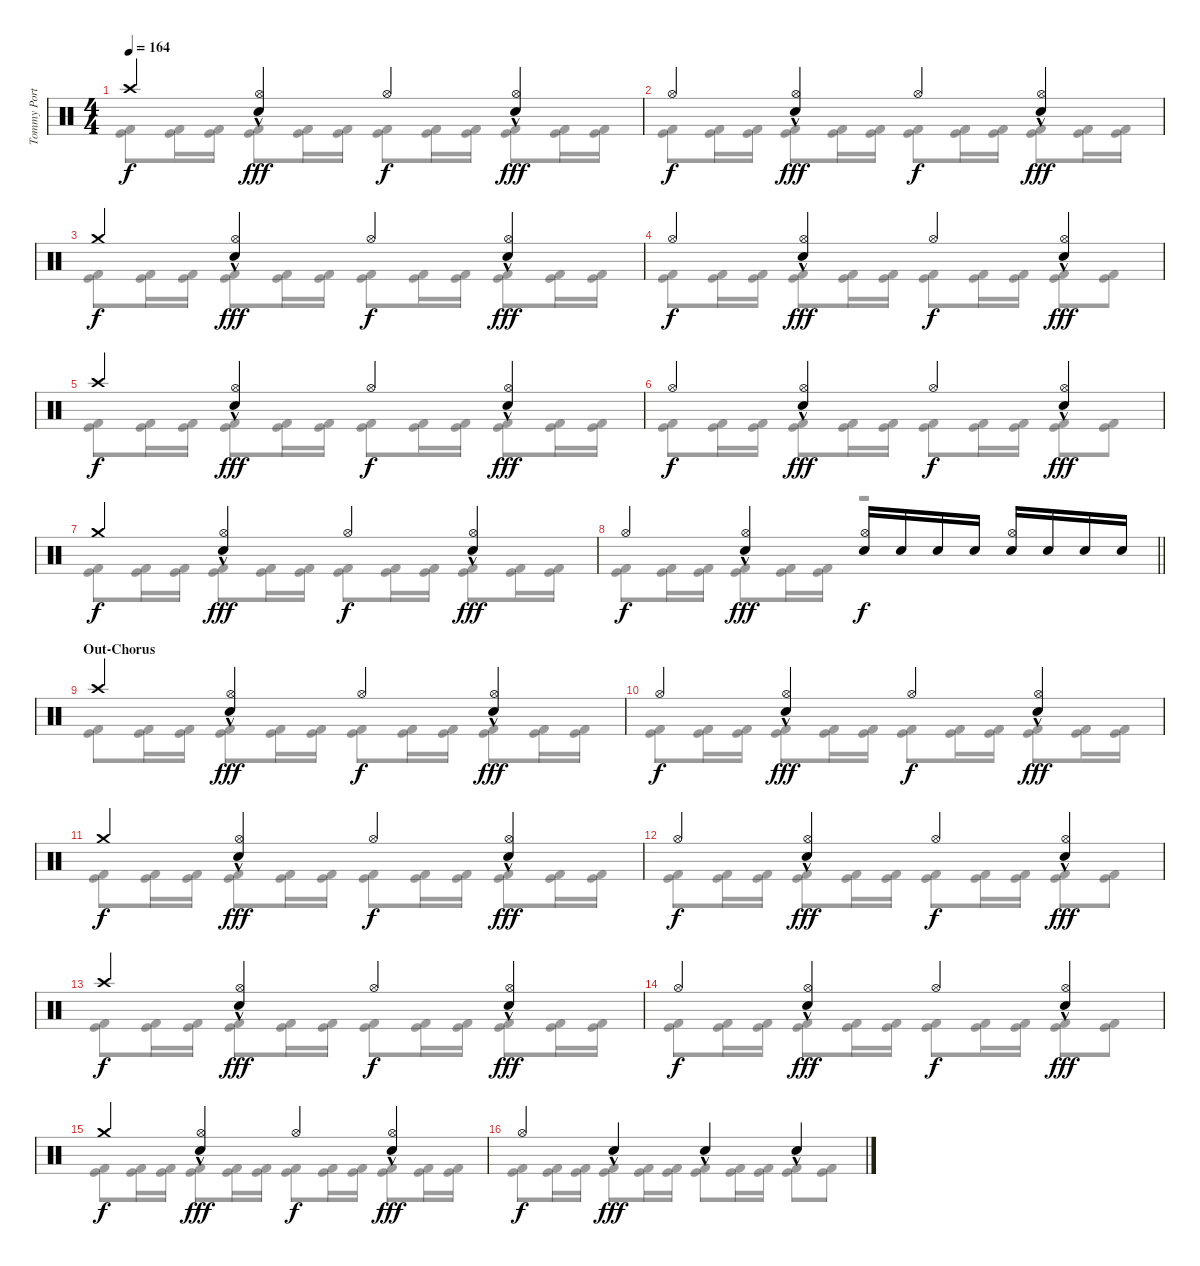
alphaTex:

\track ("Tommy Portimo" "Tommy Port") {instrument percussion}
\staff {score}
\articulation defaults
\voice
\ts (4 4)
\tempo 164
\clef neutral
\ks c "Crash high (hit)".4{dy f}
("Snare (hit) 2"{hac} "Hi-Hat (open)").4{dy fff} "Hi-Hat (open)".4{dy f} ("Snare (hit) 2"{hac} "Hi-Hat (open)").4{dy fff} |
"Hi-Hat (open)".4{dy f} ("Snare (hit) 2"{hac} "Hi-Hat (open)").4{dy fff} "Hi-Hat (open)".4{dy f} ("Snare (hit) 2"{hac} "Hi-Hat (open)").4{dy fff} |
"Crash medium (hit)".4{dy f} ("Snare (hit) 2"{hac} "Hi-Hat (open)").4{dy fff} "Hi-Hat (open)".4{dy f} ("Snare (hit) 2"{hac} "Hi-Hat (open)").4{dy fff} |
"Hi-Hat (open)".4{dy f} ("Snare (hit) 2"{hac} "Hi-Hat (open)").4{dy fff} "Hi-Hat (open)".4{dy f} ("Snare (hit) 2"{hac} "Hi-Hat (open)").4{dy fff} |
"Crash high (hit)".4{dy f} ("Snare (hit) 2"{hac} "Hi-Hat (open)").4{dy fff} "Hi-Hat (open)".4{dy f} ("Snare (hit) 2"{hac} "Hi-Hat (open)").4{dy fff} |
"Hi-Hat (open)".4{dy f} ("Snare (hit) 2"{hac} "Hi-Hat (open)").4{dy fff} "Hi-Hat (open)".4{dy f} ("Snare (hit) 2"{hac} "Hi-Hat (open)").4{dy fff} |
"Crash medium (hit)".4{dy f} ("Snare (hit) 2"{hac} "Hi-Hat (open)").4{dy fff} "Hi-Hat (open)".4{dy f} ("Snare (hit) 2"{hac} "Hi-Hat (open)").4{dy fff} |
\barLineRight lightlight "Hi-Hat (open)".4{dy f}
("Snare (hit) 2"{hac} "Hi-Hat (open)").4{dy fff} ("Snare (hit) 2" "Hi-Hat (open)").16{dy f} "Snare (hit) 2".16 "Snare (hit) 2".16 "Snare (hit) 2".16 ("Snare (hit) 2" "Hi-Hat (open)").16 "Snare (hit) 2".16 "Snare (hit) 2".16 "Snare (hit) 2".16 |
\section ("" "Out-Chorus")
"Crash high (hit)".4 ("Snare (hit) 2"{hac} "Hi-Hat (open)").4{dy fff} "Hi-Hat (open)".4{dy f} ("Snare (hit) 2"{hac} "Hi-Hat (open)").4{dy fff} |
"Hi-Hat (open)".4{dy f} ("Snare (hit) 2"{hac} "Hi-Hat (open)").4{dy fff} "Hi-Hat (open)".4{dy f} ("Snare (hit) 2"{hac} "Hi-Hat (open)").4{dy fff} |
"Crash medium (hit)".4{dy f} ("Snare (hit) 2"{hac} "Hi-Hat (open)").4{dy fff} "Hi-Hat (open)".4{dy f} ("Snare (hit) 2"{hac} "Hi-Hat (open)").4{dy fff} |
"Hi-Hat (open)".4{dy f} ("Snare (hit) 2"{hac} "Hi-Hat (open)").4{dy fff} "Hi-Hat (open)".4{dy f} ("Snare (hit) 2"{hac} "Hi-Hat (open)").4{dy fff} |
"Crash high (hit)".4{dy f} ("Snare (hit) 2"{hac} "Hi-Hat (open)").4{dy fff} "Hi-Hat (open)".4{dy f} ("Snare (hit) 2"{hac} "Hi-Hat (open)").4{dy fff} |
"Hi-Hat (open)".4{dy f} ("Snare (hit) 2"{hac} "Hi-Hat (open)").4{dy fff} "Hi-Hat (open)".4{dy f} ("Snare (hit) 2"{hac} "Hi-Hat (open)").4{dy fff} |
"Crash medium (hit)".4{dy f} ("Snare (hit) 2"{hac} "Hi-Hat (open)").4{dy fff} "Hi-Hat (open)".4{dy f} ("Snare (hit) 2"{hac} "Hi-Hat (open)").4{dy fff} |
"Hi-Hat (open)".4{dy f} "Snare (hit) 2"{hac}.4{dy fff} "Snare (hit) 2"{hac}.4 "Snare (hit) 2"{hac}.4
\voice
\clef neutral
\ottava regular
\simile none
\ks c
("Kick (hit)" "Kick (hit) 2").8{dy f} ("Kick (hit)" "Kick (hit) 2").16 ("Kick (hit)" "Kick (hit) 2").16 ("Kick (hit)" "Kick (hit) 2").8 ("Kick (hit)" "Kick (hit) 2").16 ("Kick (hit)" "Kick (hit) 2").16 ("Kick (hit)" "Kick (hit) 2").8 ("Kick (hit)" "Kick (hit) 2").16 ("Kick (hit)" "Kick (hit) 2").16 ("Kick (hit)" "Kick (hit) 2").8 ("Kick (hit)" "Kick (hit) 2").16 ("Kick (hit)" "Kick (hit) 2").16 |
("Kick (hit)" "Kick (hit) 2").8 ("Kick (hit)" "Kick (hit) 2").16 ("Kick (hit)" "Kick (hit) 2").16 ("Kick (hit)" "Kick (hit) 2").8 ("Kick (hit)" "Kick (hit) 2").16 ("Kick (hit)" "Kick (hit) 2").16 ("Kick (hit)" "Kick (hit) 2").8 ("Kick (hit)" "Kick (hit) 2").16 ("Kick (hit)" "Kick (hit) 2").16 ("Kick (hit)" "Kick (hit) 2").8 ("Kick (hit)" "Kick (hit) 2").16 ("Kick (hit)" "Kick (hit) 2").16 |
("Kick (hit)" "Kick (hit) 2").8 ("Kick (hit)" "Kick (hit) 2").16 ("Kick (hit)" "Kick (hit) 2").16 ("Kick (hit)" "Kick (hit) 2").8 ("Kick (hit)" "Kick (hit) 2").16 ("Kick (hit)" "Kick (hit) 2").16 ("Kick (hit)" "Kick (hit) 2").8 ("Kick (hit)" "Kick (hit) 2").16 ("Kick (hit)" "Kick (hit) 2").16 ("Kick (hit)" "Kick (hit) 2").8 ("Kick (hit)" "Kick (hit) 2").16 ("Kick (hit)" "Kick (hit) 2").16 |
("Kick (hit)" "Kick (hit) 2").8 ("Kick (hit)" "Kick (hit) 2").16 ("Kick (hit)" "Kick (hit) 2").16 ("Kick (hit)" "Kick (hit) 2").8 ("Kick (hit)" "Kick (hit) 2").16 ("Kick (hit)" "Kick (hit) 2").16 ("Kick (hit)" "Kick (hit) 2").8 ("Kick (hit)" "Kick (hit) 2").16 ("Kick (hit)" "Kick (hit) 2").16 ("Kick (hit)" "Kick (hit) 2").8 ("Kick (hit)" "Kick (hit) 2").8 |
("Kick (hit)" "Kick (hit) 2").8 ("Kick (hit)" "Kick (hit) 2").16 ("Kick (hit)" "Kick (hit) 2").16 ("Kick (hit)" "Kick (hit) 2").8 ("Kick (hit)" "Kick (hit) 2").16 ("Kick (hit)" "Kick (hit) 2").16 ("Kick (hit)" "Kick (hit) 2").8 ("Kick (hit)" "Kick (hit) 2").16 ("Kick (hit)" "Kick (hit) 2").16 ("Kick (hit)" "Kick (hit) 2").8 ("Kick (hit)" "Kick (hit) 2").16 ("Kick (hit)" "Kick (hit) 2").16 |
("Kick (hit)" "Kick (hit) 2").8 ("Kick (hit)" "Kick (hit) 2").16 ("Kick (hit)" "Kick (hit) 2").16 ("Kick (hit)" "Kick (hit) 2").8 ("Kick (hit)" "Kick (hit) 2").16 ("Kick (hit)" "Kick (hit) 2").16 ("Kick (hit)" "Kick (hit) 2").8 ("Kick (hit)" "Kick (hit) 2").16 ("Kick (hit)" "Kick (hit) 2").16 ("Kick (hit)" "Kick (hit) 2").8 ("Kick (hit)" "Kick (hit) 2").8 |
("Kick (hit)" "Kick (hit) 2").8 ("Kick (hit)" "Kick (hit) 2").16 ("Kick (hit)" "Kick (hit) 2").16 ("Kick (hit)" "Kick (hit) 2").8 ("Kick (hit)" "Kick (hit) 2").16 ("Kick (hit)" "Kick (hit) 2").16 ("Kick (hit)" "Kick (hit) 2").8 ("Kick (hit)" "Kick (hit) 2").16 ("Kick (hit)" "Kick (hit) 2").16 ("Kick (hit)" "Kick (hit) 2").8 ("Kick (hit)" "Kick (hit) 2").16 ("Kick (hit)" "Kick (hit) 2").16 |
\barLineRight lightlight
("Kick (hit)" "Kick (hit) 2").8 ("Kick (hit)" "Kick (hit) 2").16 ("Kick (hit)" "Kick (hit) 2").16 ("Kick (hit)" "Kick (hit) 2").8 ("Kick (hit)" "Kick (hit) 2").16 ("Kick (hit)" "Kick (hit) 2").16 r.2 |
("Kick (hit)" "Kick (hit) 2").8 ("Kick (hit)" "Kick (hit) 2").16 ("Kick (hit)" "Kick (hit) 2").16 ("Kick (hit)" "Kick (hit) 2").8 ("Kick (hit)" "Kick (hit) 2").16 ("Kick (hit)" "Kick (hit) 2").16 ("Kick (hit)" "Kick (hit) 2").8 ("Kick (hit)" "Kick (hit) 2").16 ("Kick (hit)" "Kick (hit) 2").16 ("Kick (hit)" "Kick (hit) 2").8 ("Kick (hit)" "Kick (hit) 2").16 ("Kick (hit)" "Kick (hit) 2").16 |
("Kick (hit)" "Kick (hit) 2").8 ("Kick (hit)" "Kick (hit) 2").16 ("Kick (hit)" "Kick (hit) 2").16 ("Kick (hit)" "Kick (hit) 2").8 ("Kick (hit)" "Kick (hit) 2").16 ("Kick (hit)" "Kick (hit) 2").16 ("Kick (hit)" "Kick (hit) 2").8 ("Kick (hit)" "Kick (hit) 2").16 ("Kick (hit)" "Kick (hit) 2").16 ("Kick (hit)" "Kick (hit) 2").8 ("Kick (hit)" "Kick (hit) 2").16 ("Kick (hit)" "Kick (hit) 2").16 |
("Kick (hit)" "Kick (hit) 2").8 ("Kick (hit)" "Kick (hit) 2").16 ("Kick (hit)" "Kick (hit) 2").16 ("Kick (hit)" "Kick (hit) 2").8 ("Kick (hit)" "Kick (hit) 2").16 ("Kick (hit)" "Kick (hit) 2").16 ("Kick (hit)" "Kick (hit) 2").8 ("Kick (hit)" "Kick (hit) 2").16 ("Kick (hit)" "Kick (hit) 2").16 ("Kick (hit)" "Kick (hit) 2").8 ("Kick (hit)" "Kick (hit) 2").16 ("Kick (hit)" "Kick (hit) 2").16 |
("Kick (hit)" "Kick (hit) 2").8 ("Kick (hit)" "Kick (hit) 2").16 ("Kick (hit)" "Kick (hit) 2").16 ("Kick (hit)" "Kick (hit) 2").8 ("Kick (hit)" "Kick (hit) 2").16 ("Kick (hit)" "Kick (hit) 2").16 ("Kick (hit)" "Kick (hit) 2").8 ("Kick (hit)" "Kick (hit) 2").16 ("Kick (hit)" "Kick (hit) 2").16 ("Kick (hit)" "Kick (hit) 2").8 ("Kick (hit)" "Kick (hit) 2").8 |
("Kick (hit)" "Kick (hit) 2").8 ("Kick (hit)" "Kick (hit) 2").16 ("Kick (hit)" "Kick (hit) 2").16 ("Kick (hit)" "Kick (hit) 2").8 ("Kick (hit)" "Kick (hit) 2").16 ("Kick (hit)" "Kick (hit) 2").16 ("Kick (hit)" "Kick (hit) 2").8 ("Kick (hit)" "Kick (hit) 2").16 ("Kick (hit)" "Kick (hit) 2").16 ("Kick (hit)" "Kick (hit) 2").8 ("Kick (hit)" "Kick (hit) 2").16 ("Kick (hit)" "Kick (hit) 2").16 |
("Kick (hit)" "Kick (hit) 2").8 ("Kick (hit)" "Kick (hit) 2").16 ("Kick (hit)" "Kick (hit) 2").16 ("Kick (hit)" "Kick (hit) 2").8 ("Kick (hit)" "Kick (hit) 2").16 ("Kick (hit)" "Kick (hit) 2").16 ("Kick (hit)" "Kick (hit) 2").8 ("Kick (hit)" "Kick (hit) 2").16 ("Kick (hit)" "Kick (hit) 2").16 ("Kick (hit)" "Kick (hit) 2").8 ("Kick (hit)" "Kick (hit) 2").8 |
("Kick (hit)" "Kick (hit) 2").8 ("Kick (hit)" "Kick (hit) 2").16 ("Kick (hit)" "Kick (hit) 2").16 ("Kick (hit)" "Kick (hit) 2").8 ("Kick (hit)" "Kick (hit) 2").16 ("Kick (hit)" "Kick (hit) 2").16 ("Kick (hit)" "Kick (hit) 2").8 ("Kick (hit)" "Kick (hit) 2").16 ("Kick (hit)" "Kick (hit) 2").16 ("Kick (hit)" "Kick (hit) 2").8 ("Kick (hit)" "Kick (hit) 2").16 ("Kick (hit)" "Kick (hit) 2").16 |
("Kick (hit)" "Kick (hit) 2").8 ("Kick (hit)" "Kick (hit) 2").16 ("Kick (hit)" "Kick (hit) 2").16 ("Kick (hit)" "Kick (hit) 2").8 ("Kick (hit)" "Kick (hit) 2").16 ("Kick (hit)" "Kick (hit) 2").16 ("Kick (hit)" "Kick (hit) 2").8 ("Kick (hit)" "Kick (hit) 2").16 ("Kick (hit)" "Kick (hit) 2").16 ("Kick (hit)" "Kick (hit) 2").8 ("Kick (hit)" "Kick (hit) 2").8
